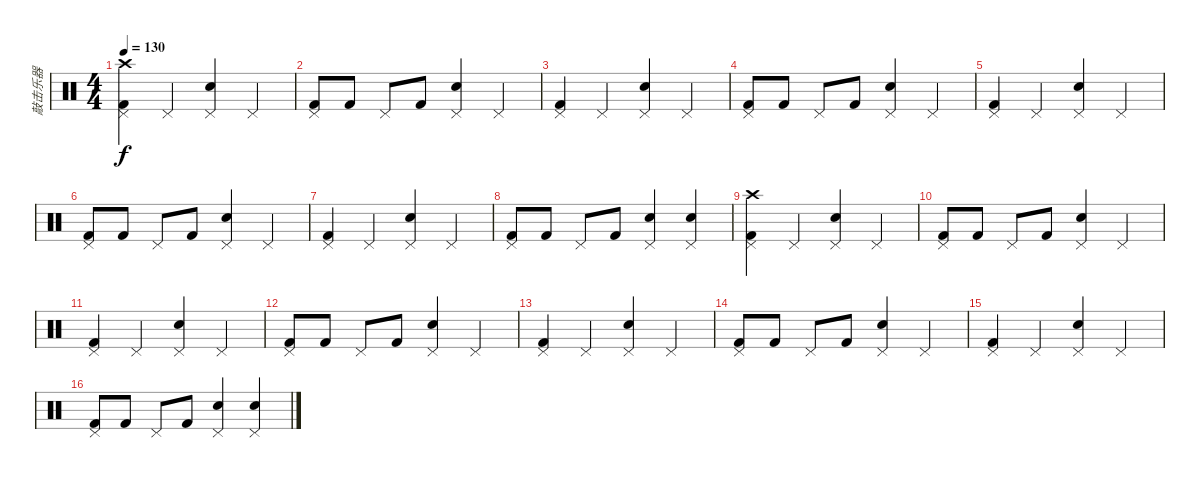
\track ("敲击乐器" "敲击乐器") {instrument percussion}
\staff {score}
\articulation defaults
\ts (4 4)
\tempo 130
\clef neutral
\ks c
("Crash high (hit)" "Kick (hit) 2" "Pedal Hi-Hat (hit)").4{dy f} "Pedal Hi-Hat (hit)".4 ("Pedal Hi-Hat (hit)" "Electric Snare (hit)").4 "Pedal Hi-Hat (hit)".4 |
("Pedal Hi-Hat (hit)" "Kick (hit) 2").8 "Kick (hit) 2".8 "Pedal Hi-Hat (hit)".8 "Kick (hit) 2".8 ("Pedal Hi-Hat (hit)" "Electric Snare (hit)").4 "Pedal Hi-Hat (hit)".4 |
("Kick (hit) 2" "Pedal Hi-Hat (hit)").4 "Pedal Hi-Hat (hit)".4 ("Pedal Hi-Hat (hit)" "Electric Snare (hit)").4 "Pedal Hi-Hat (hit)".4 |
("Pedal Hi-Hat (hit)" "Kick (hit) 2").8 "Kick (hit) 2".8 "Pedal Hi-Hat (hit)".8 "Kick (hit) 2".8 ("Pedal Hi-Hat (hit)" "Electric Snare (hit)").4 "Pedal Hi-Hat (hit)".4 |
("Kick (hit) 2" "Pedal Hi-Hat (hit)").4 "Pedal Hi-Hat (hit)".4 ("Pedal Hi-Hat (hit)" "Electric Snare (hit)").4 "Pedal Hi-Hat (hit)".4 |
("Pedal Hi-Hat (hit)" "Kick (hit) 2").8 "Kick (hit) 2".8 "Pedal Hi-Hat (hit)".8 "Kick (hit) 2".8 ("Pedal Hi-Hat (hit)" "Electric Snare (hit)").4 "Pedal Hi-Hat (hit)".4 |
("Kick (hit) 2" "Pedal Hi-Hat (hit)").4 "Pedal Hi-Hat (hit)".4 ("Pedal Hi-Hat (hit)" "Electric Snare (hit)").4 "Pedal Hi-Hat (hit)".4 |
("Pedal Hi-Hat (hit)" "Kick (hit) 2").8 "Kick (hit) 2".8 "Pedal Hi-Hat (hit)".8 "Kick (hit) 2".8 ("Pedal Hi-Hat (hit)" "Electric Snare (hit)").4 ("Pedal Hi-Hat (hit)" "Electric Snare (hit)").4 |
("Crash high (hit)" "Kick (hit) 2" "Pedal Hi-Hat (hit)").4 "Pedal Hi-Hat (hit)".4 ("Pedal Hi-Hat (hit)" "Electric Snare (hit)").4 "Pedal Hi-Hat (hit)".4 |
("Pedal Hi-Hat (hit)" "Kick (hit) 2").8 "Kick (hit) 2".8 "Pedal Hi-Hat (hit)".8 "Kick (hit) 2".8 ("Pedal Hi-Hat (hit)" "Electric Snare (hit)").4 "Pedal Hi-Hat (hit)".4 |
("Kick (hit) 2" "Pedal Hi-Hat (hit)").4 "Pedal Hi-Hat (hit)".4 ("Pedal Hi-Hat (hit)" "Electric Snare (hit)").4 "Pedal Hi-Hat (hit)".4 |
("Pedal Hi-Hat (hit)" "Kick (hit) 2").8 "Kick (hit) 2".8 "Pedal Hi-Hat (hit)".8 "Kick (hit) 2".8 ("Pedal Hi-Hat (hit)" "Electric Snare (hit)").4 "Pedal Hi-Hat (hit)".4 |
("Kick (hit) 2" "Pedal Hi-Hat (hit)").4 "Pedal Hi-Hat (hit)".4 ("Pedal Hi-Hat (hit)" "Electric Snare (hit)").4 "Pedal Hi-Hat (hit)".4 |
("Pedal Hi-Hat (hit)" "Kick (hit) 2").8 "Kick (hit) 2".8 "Pedal Hi-Hat (hit)".8 "Kick (hit) 2".8 ("Pedal Hi-Hat (hit)" "Electric Snare (hit)").4 "Pedal Hi-Hat (hit)".4 |
("Kick (hit) 2" "Pedal Hi-Hat (hit)").4 "Pedal Hi-Hat (hit)".4 ("Pedal Hi-Hat (hit)" "Electric Snare (hit)").4 "Pedal Hi-Hat (hit)".4 |
("Pedal Hi-Hat (hit)" "Kick (hit) 2").8 "Kick (hit) 2".8 "Pedal Hi-Hat (hit)".8 "Kick (hit) 2".8 ("Pedal Hi-Hat (hit)" "Electric Snare (hit)").4 ("Pedal Hi-Hat (hit)" "Electric Snare (hit)").4
